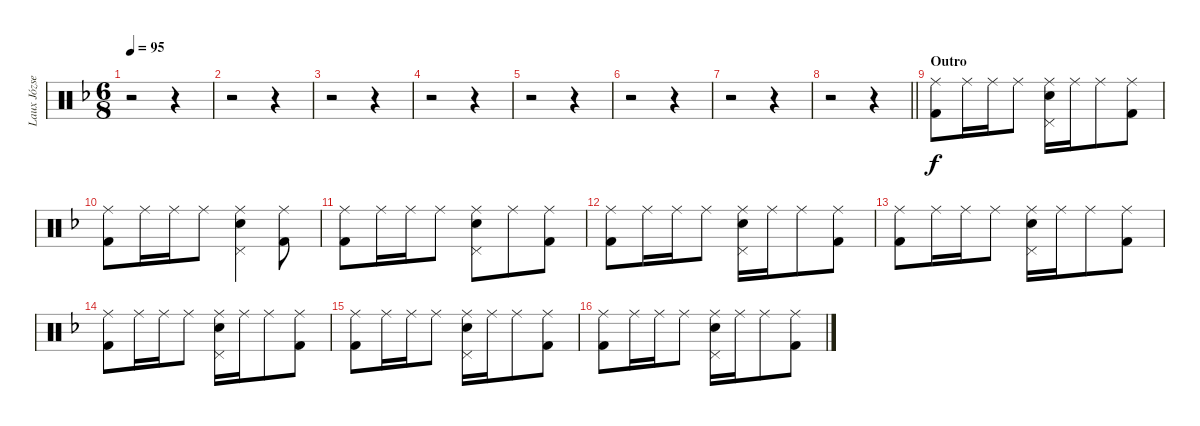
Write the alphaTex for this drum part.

\track ("Laux József" "Laux Józse") {instrument percussion}
\staff {score}
\articulation defaults
\ts (6 8)
\tempo 95
\clef neutral
\ks dminor
r.2{dy f} r.4 |
r.2 r.4 |
r.2 r.4 |
r.2 r.4 |
r.2 r.4 |
r.2 r.4 |
r.2 r.4 |
\barLineRight lightlight
r.2 r.4 |
\section ("" "Outro")
("Ride (middle)" "Kick (hit) 2").8 "Ride (middle)".16 "Ride (middle)".16 "Ride (middle)".8 ("Pedal Hi-Hat (hit)" "Ride (middle)" "Electric Snare (hit)").16 "Ride (middle)".16 "Ride (middle)".8 ("Ride (middle)" "Kick (hit) 2").8 |
("Ride (middle)" "Kick (hit) 2").8 "Ride (middle)".16 "Ride (middle)".16 "Ride (middle)".8 ("Pedal Hi-Hat (hit)" "Ride (middle)" "Electric Snare (hit)").4 ("Ride (middle)" "Kick (hit) 2").8 |
("Ride (middle)" "Kick (hit) 2").8 "Ride (middle)".16 "Ride (middle)".16 "Ride (middle)".8 ("Pedal Hi-Hat (hit)" "Ride (middle)" "Electric Snare (hit)").8 "Ride (middle)".8 ("Ride (middle)" "Kick (hit) 2").8 |
("Ride (middle)" "Kick (hit) 2").8 "Ride (middle)".16 "Ride (middle)".16 "Ride (middle)".8 ("Pedal Hi-Hat (hit)" "Ride (middle)" "Electric Snare (hit)").16 "Ride (middle)".16 "Ride (middle)".8 ("Ride (middle)" "Kick (hit) 2").8 |
("Ride (middle)" "Kick (hit) 2").8 "Ride (middle)".16 "Ride (middle)".16 "Ride (middle)".8 ("Pedal Hi-Hat (hit)" "Ride (middle)" "Electric Snare (hit)").16 "Ride (middle)".16 "Ride (middle)".8 ("Ride (middle)" "Kick (hit) 2").8 |
("Ride (middle)" "Kick (hit) 2").8 "Ride (middle)".16 "Ride (middle)".16 "Ride (middle)".8 ("Pedal Hi-Hat (hit)" "Ride (middle)" "Electric Snare (hit)").16 "Ride (middle)".16 "Ride (middle)".8 ("Ride (middle)" "Kick (hit) 2").8 |
("Ride (middle)" "Kick (hit) 2").8 "Ride (middle)".16 "Ride (middle)".16 "Ride (middle)".8 ("Pedal Hi-Hat (hit)" "Ride (middle)" "Electric Snare (hit)").16 "Ride (middle)".16 "Ride (middle)".8 ("Ride (middle)" "Kick (hit) 2").8 |
("Ride (middle)" "Kick (hit) 2").8 "Ride (middle)".16 "Ride (middle)".16 "Ride (middle)".8 ("Pedal Hi-Hat (hit)" "Ride (middle)" "Electric Snare (hit)").16 "Ride (middle)".16 "Ride (middle)".8 ("Ride (middle)" "Kick (hit) 2").8
